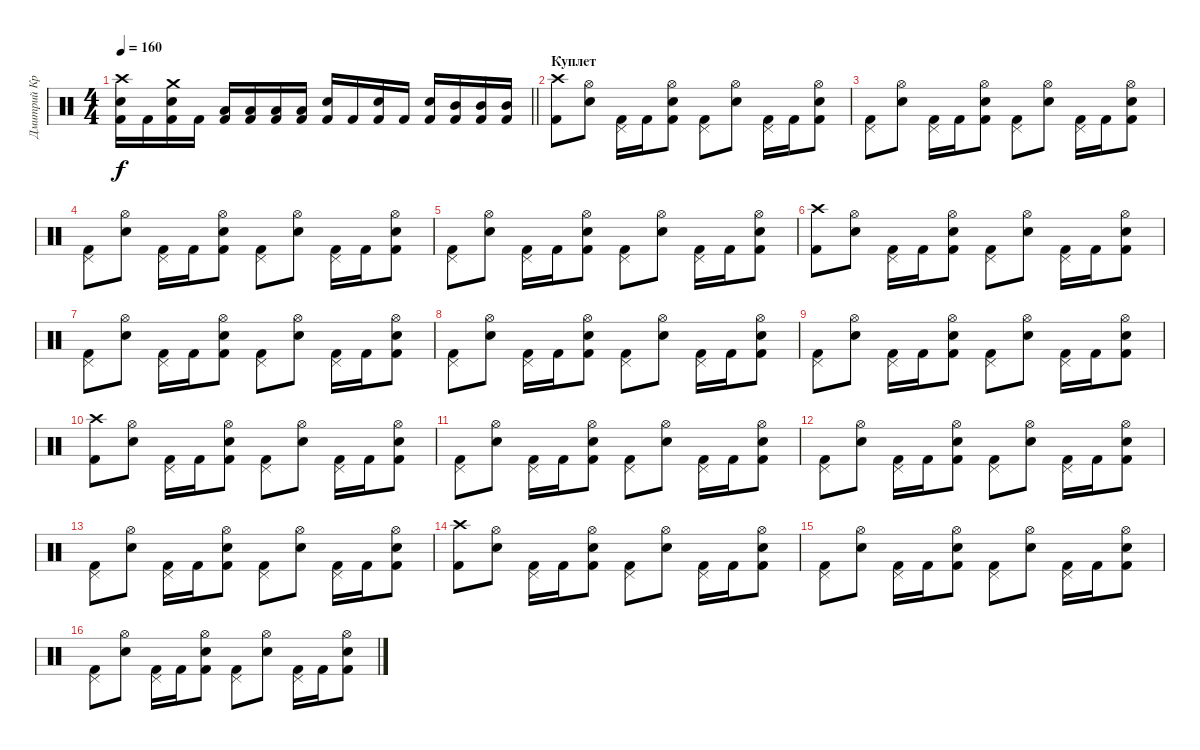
\track ("Дмитрий Кривенков" "Дмитрий Кр") {instrument percussion}
\staff {score}
\articulation defaults
\ts (4 4)
\tempo 160
\clef neutral
\barLineRight lightlight
\ks c
("Crash high (hit)" "Electric Snare (hit)" "Kick (hit) 2").16{dy f} "Kick (hit) 2".16 ("Crash medium (hit)" "Electric Snare (hit)" "Kick (hit) 2").16 "Kick (hit) 2".16 ("Low Tom (hit)" "Kick (hit) 2").16 ("Low Tom (hit)" "Kick (hit) 2").16 ("Low Tom (hit)" "Kick (hit) 2").16 ("Low Tom (hit)" "Kick (hit) 2").16 ("Electric Snare (hit)" "Kick (hit) 2").16 "Kick (hit) 2".16 ("Electric Snare (hit)" "Kick (hit) 2").16 "Kick (hit) 2".16 ("Electric Snare (hit)" "Kick (hit) 2").16 ("Mid Tom (hit)" "Kick (hit) 2").16 ("Mid Tom (hit)" "Kick (hit) 2").16 ("Mid Tom (hit)" "Kick (hit) 2").16 |
\section ("" "Куплет")
("Crash high (hit)" "Kick (hit) 2").8 ("Hi-Hat (open)" "Electric Snare (hit)").8 ("Pedal Hi-Hat (hit)" "Kick (hit) 2").16 "Kick (hit) 2".16 ("Hi-Hat (open)" "Electric Snare (hit)" "Kick (hit) 2").8 ("Pedal Hi-Hat (hit)" "Kick (hit) 2").8 ("Hi-Hat (open)" "Electric Snare (hit)").8 ("Pedal Hi-Hat (hit)" "Kick (hit) 2").16 "Kick (hit) 2".16 ("Hi-Hat (open)" "Electric Snare (hit)" "Kick (hit) 2").8 |
("Pedal Hi-Hat (hit)" "Kick (hit) 2").8 ("Hi-Hat (open)" "Electric Snare (hit)").8 ("Pedal Hi-Hat (hit)" "Kick (hit) 2").16 "Kick (hit) 2".16 ("Hi-Hat (open)" "Electric Snare (hit)" "Kick (hit) 2").8 ("Pedal Hi-Hat (hit)" "Kick (hit) 2").8 ("Hi-Hat (open)" "Electric Snare (hit)").8 ("Pedal Hi-Hat (hit)" "Kick (hit) 2").16 "Kick (hit) 2".16 ("Hi-Hat (open)" "Electric Snare (hit)" "Kick (hit) 2").8 |
("Pedal Hi-Hat (hit)" "Kick (hit) 2").8 ("Hi-Hat (open)" "Electric Snare (hit)").8 ("Pedal Hi-Hat (hit)" "Kick (hit) 2").16 "Kick (hit) 2".16 ("Hi-Hat (open)" "Electric Snare (hit)" "Kick (hit) 2").8 ("Pedal Hi-Hat (hit)" "Kick (hit) 2").8 ("Hi-Hat (open)" "Electric Snare (hit)").8 ("Pedal Hi-Hat (hit)" "Kick (hit) 2").16 "Kick (hit) 2".16 ("Hi-Hat (open)" "Electric Snare (hit)" "Kick (hit) 2").8 |
("Pedal Hi-Hat (hit)" "Kick (hit) 2").8 ("Hi-Hat (open)" "Electric Snare (hit)").8 ("Pedal Hi-Hat (hit)" "Kick (hit) 2").16 "Kick (hit) 2".16 ("Hi-Hat (open)" "Electric Snare (hit)" "Kick (hit) 2").8 ("Pedal Hi-Hat (hit)" "Kick (hit) 2").8 ("Hi-Hat (open)" "Electric Snare (hit)").8 ("Pedal Hi-Hat (hit)" "Kick (hit) 2").16 "Kick (hit) 2".16 ("Hi-Hat (open)" "Electric Snare (hit)" "Kick (hit) 2").8 |
("Crash high (hit)" "Kick (hit) 2").8 ("Hi-Hat (open)" "Electric Snare (hit)").8 ("Pedal Hi-Hat (hit)" "Kick (hit) 2").16 "Kick (hit) 2".16 ("Hi-Hat (open)" "Electric Snare (hit)" "Kick (hit) 2").8 ("Pedal Hi-Hat (hit)" "Kick (hit) 2").8 ("Hi-Hat (open)" "Electric Snare (hit)").8 ("Pedal Hi-Hat (hit)" "Kick (hit) 2").16 "Kick (hit) 2".16 ("Hi-Hat (open)" "Electric Snare (hit)" "Kick (hit) 2").8 |
("Pedal Hi-Hat (hit)" "Kick (hit) 2").8 ("Hi-Hat (open)" "Electric Snare (hit)").8 ("Pedal Hi-Hat (hit)" "Kick (hit) 2").16 "Kick (hit) 2".16 ("Hi-Hat (open)" "Electric Snare (hit)" "Kick (hit) 2").8 ("Pedal Hi-Hat (hit)" "Kick (hit) 2").8 ("Hi-Hat (open)" "Electric Snare (hit)").8 ("Pedal Hi-Hat (hit)" "Kick (hit) 2").16 "Kick (hit) 2".16 ("Hi-Hat (open)" "Electric Snare (hit)" "Kick (hit) 2").8 |
("Pedal Hi-Hat (hit)" "Kick (hit) 2").8 ("Hi-Hat (open)" "Electric Snare (hit)").8 ("Pedal Hi-Hat (hit)" "Kick (hit) 2").16 "Kick (hit) 2".16 ("Hi-Hat (open)" "Electric Snare (hit)" "Kick (hit) 2").8 ("Pedal Hi-Hat (hit)" "Kick (hit) 2").8 ("Hi-Hat (open)" "Electric Snare (hit)").8 ("Pedal Hi-Hat (hit)" "Kick (hit) 2").16 "Kick (hit) 2".16 ("Hi-Hat (open)" "Electric Snare (hit)" "Kick (hit) 2").8 |
("Pedal Hi-Hat (hit)" "Kick (hit) 2").8 ("Hi-Hat (open)" "Electric Snare (hit)").8 ("Pedal Hi-Hat (hit)" "Kick (hit) 2").16 "Kick (hit) 2".16 ("Hi-Hat (open)" "Electric Snare (hit)" "Kick (hit) 2").8 ("Pedal Hi-Hat (hit)" "Kick (hit) 2").8 ("Hi-Hat (open)" "Electric Snare (hit)").8 ("Pedal Hi-Hat (hit)" "Kick (hit) 2").16 "Kick (hit) 2".16 ("Hi-Hat (open)" "Electric Snare (hit)" "Kick (hit) 2").8 |
("Crash high (hit)" "Kick (hit) 2").8 ("Hi-Hat (open)" "Electric Snare (hit)").8 ("Pedal Hi-Hat (hit)" "Kick (hit) 2").16 "Kick (hit) 2".16 ("Hi-Hat (open)" "Electric Snare (hit)" "Kick (hit) 2").8 ("Pedal Hi-Hat (hit)" "Kick (hit) 2").8 ("Hi-Hat (open)" "Electric Snare (hit)").8 ("Pedal Hi-Hat (hit)" "Kick (hit) 2").16 "Kick (hit) 2".16 ("Hi-Hat (open)" "Electric Snare (hit)" "Kick (hit) 2").8 |
("Pedal Hi-Hat (hit)" "Kick (hit) 2").8 ("Hi-Hat (open)" "Electric Snare (hit)").8 ("Pedal Hi-Hat (hit)" "Kick (hit) 2").16 "Kick (hit) 2".16 ("Hi-Hat (open)" "Electric Snare (hit)" "Kick (hit) 2").8 ("Pedal Hi-Hat (hit)" "Kick (hit) 2").8 ("Hi-Hat (open)" "Electric Snare (hit)").8 ("Pedal Hi-Hat (hit)" "Kick (hit) 2").16 "Kick (hit) 2".16 ("Hi-Hat (open)" "Electric Snare (hit)" "Kick (hit) 2").8 |
("Pedal Hi-Hat (hit)" "Kick (hit) 2").8 ("Hi-Hat (open)" "Electric Snare (hit)").8 ("Pedal Hi-Hat (hit)" "Kick (hit) 2").16 "Kick (hit) 2".16 ("Hi-Hat (open)" "Electric Snare (hit)" "Kick (hit) 2").8 ("Pedal Hi-Hat (hit)" "Kick (hit) 2").8 ("Hi-Hat (open)" "Electric Snare (hit)").8 ("Pedal Hi-Hat (hit)" "Kick (hit) 2").16 "Kick (hit) 2".16 ("Hi-Hat (open)" "Electric Snare (hit)" "Kick (hit) 2").8 |
("Pedal Hi-Hat (hit)" "Kick (hit) 2").8 ("Hi-Hat (open)" "Electric Snare (hit)").8 ("Pedal Hi-Hat (hit)" "Kick (hit) 2").16 "Kick (hit) 2".16 ("Hi-Hat (open)" "Electric Snare (hit)" "Kick (hit) 2").8 ("Pedal Hi-Hat (hit)" "Kick (hit) 2").8 ("Hi-Hat (open)" "Electric Snare (hit)").8 ("Pedal Hi-Hat (hit)" "Kick (hit) 2").16 "Kick (hit) 2".16 ("Hi-Hat (open)" "Electric Snare (hit)" "Kick (hit) 2").8 |
("Crash high (hit)" "Kick (hit) 2").8 ("Hi-Hat (open)" "Electric Snare (hit)").8 ("Pedal Hi-Hat (hit)" "Kick (hit) 2").16 "Kick (hit) 2".16 ("Hi-Hat (open)" "Electric Snare (hit)" "Kick (hit) 2").8 ("Pedal Hi-Hat (hit)" "Kick (hit) 2").8 ("Hi-Hat (open)" "Electric Snare (hit)").8 ("Pedal Hi-Hat (hit)" "Kick (hit) 2").16 "Kick (hit) 2".16 ("Hi-Hat (open)" "Electric Snare (hit)" "Kick (hit) 2").8 |
("Pedal Hi-Hat (hit)" "Kick (hit) 2").8 ("Hi-Hat (open)" "Electric Snare (hit)").8 ("Pedal Hi-Hat (hit)" "Kick (hit) 2").16 "Kick (hit) 2".16 ("Hi-Hat (open)" "Electric Snare (hit)" "Kick (hit) 2").8 ("Pedal Hi-Hat (hit)" "Kick (hit) 2").8 ("Hi-Hat (open)" "Electric Snare (hit)").8 ("Pedal Hi-Hat (hit)" "Kick (hit) 2").16 "Kick (hit) 2".16 ("Hi-Hat (open)" "Electric Snare (hit)" "Kick (hit) 2").8 |
("Pedal Hi-Hat (hit)" "Kick (hit) 2").8 ("Hi-Hat (open)" "Electric Snare (hit)").8 ("Pedal Hi-Hat (hit)" "Kick (hit) 2").16 "Kick (hit) 2".16 ("Hi-Hat (open)" "Electric Snare (hit)" "Kick (hit) 2").8 ("Pedal Hi-Hat (hit)" "Kick (hit) 2").8 ("Hi-Hat (open)" "Electric Snare (hit)").8 ("Pedal Hi-Hat (hit)" "Kick (hit) 2").16 "Kick (hit) 2".16 ("Hi-Hat (open)" "Electric Snare (hit)" "Kick (hit) 2").8
